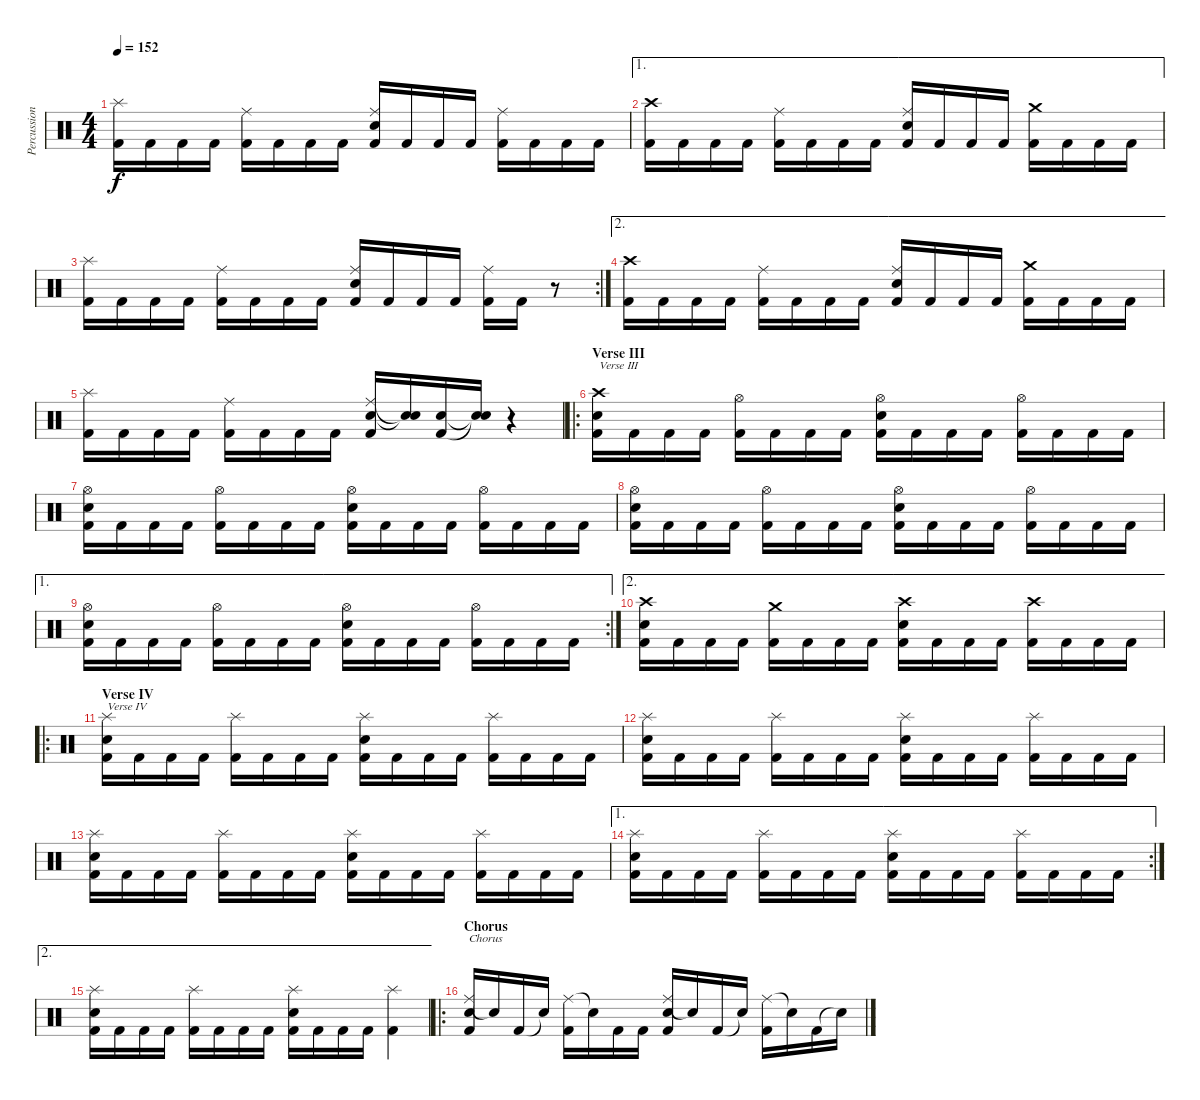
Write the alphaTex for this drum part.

\track ("Percussion" "Percussion") {instrument percussion}
\staff {score}
\articulation defaults
\ts (4 4)
\tempo 152
\clef neutral
\ks c
("Splash (hit)" "Kick (hit) 2").16{dy f} "Kick (hit) 2".16 "Kick (hit) 2".16 "Kick (hit) 2".16 ("Ride (middle)" "Kick (hit) 2").16 "Kick (hit) 2".16 "Kick (hit) 2".16 "Kick (hit) 2".16 ("Ride (middle)" "Electric Snare (hit)" "Kick (hit) 2").16 "Kick (hit) 2".16 "Kick (hit) 2".16 "Kick (hit) 2".16 ("Ride (middle)" "Kick (hit) 2").16 "Kick (hit) 2".16 "Kick (hit) 2".16 "Kick (hit) 2".16 |
\ae 1
("Crash high (hit)" "Kick (hit) 2").16 "Kick (hit) 2".16 "Kick (hit) 2".16 "Kick (hit) 2".16 ("Ride (middle)" "Kick (hit) 2").16 "Kick (hit) 2".16 "Kick (hit) 2".16 "Kick (hit) 2".16 ("Ride (middle)" "Electric Snare (hit)" "Kick (hit) 2").16 "Kick (hit) 2".16 "Kick (hit) 2".16 "Kick (hit) 2".16 ("Crash medium (hit)" "Kick (hit) 2").16 "Kick (hit) 2".16 "Kick (hit) 2".16 "Kick (hit) 2".16 |
\rc 2
("Splash (hit)" "Kick (hit) 2").16 "Kick (hit) 2".16 "Kick (hit) 2".16 "Kick (hit) 2".16 ("Ride (middle)" "Kick (hit) 2").16 "Kick (hit) 2".16 "Kick (hit) 2".16 "Kick (hit) 2".16 ("Ride (middle)" "Electric Snare (hit)" "Kick (hit) 2").16 "Kick (hit) 2".16 "Kick (hit) 2".16 "Kick (hit) 2".16 ("Ride (middle)" "Kick (hit) 2").16 "Kick (hit) 2".16 r.8 |
\ae 2
("Crash high (hit)" "Kick (hit) 2").16 "Kick (hit) 2".16 "Kick (hit) 2".16 "Kick (hit) 2".16 ("Ride (middle)" "Kick (hit) 2").16 "Kick (hit) 2".16 "Kick (hit) 2".16 "Kick (hit) 2".16 ("Ride (middle)" "Electric Snare (hit)" "Kick (hit) 2").16 "Kick (hit) 2".16 "Kick (hit) 2".16 "Kick (hit) 2".16 ("Crash medium (hit)" "Kick (hit) 2").16 "Kick (hit) 2".16 "Kick (hit) 2".16 "Kick (hit) 2".16 |
("Splash (hit)" "Kick (hit) 2").16 "Kick (hit) 2".16 "Kick (hit) 2".16 "Kick (hit) 2".16 ("Ride (middle)" "Kick (hit) 2").16 "Kick (hit) 2".16 "Kick (hit) 2".16 "Kick (hit) 2".16 ("Ride (middle)" "Electric Snare (hit)" "Kick (hit) 2").16 ("Snare (hit)"{t} "Snare (hit)"{t}).16 ("Electric Snare (hit)" "Kick (hit) 2").16 ("Snare (hit)"{t} "Snare (hit)"{t}).16 r.4 |
\ro
\section ("" "Verse III")
("Crash high (hit)" "Electric Snare (hit)" "Kick (hit) 2").16{txt "Verse III"} "Kick (hit) 2".16 "Kick (hit) 2".16 "Kick (hit) 2".16 ("Hi-Hat (open)" "Kick (hit) 2").16 "Kick (hit) 2".16 "Kick (hit) 2".16 "Kick (hit) 2".16 ("Hi-Hat (open)" "Electric Snare (hit)" "Kick (hit) 2").16 "Kick (hit) 2".16 "Kick (hit) 2".16 "Kick (hit) 2".16 ("Hi-Hat (open)" "Kick (hit) 2").16 "Kick (hit) 2".16 "Kick (hit) 2".16 "Kick (hit) 2".16 |
("Hi-Hat (open)" "Electric Snare (hit)" "Kick (hit) 2").16 "Kick (hit) 2".16 "Kick (hit) 2".16 "Kick (hit) 2".16 ("Hi-Hat (open)" "Kick (hit) 2").16 "Kick (hit) 2".16 "Kick (hit) 2".16 "Kick (hit) 2".16 ("Hi-Hat (open)" "Electric Snare (hit)" "Kick (hit) 2").16 "Kick (hit) 2".16 "Kick (hit) 2".16 "Kick (hit) 2".16 ("Hi-Hat (open)" "Kick (hit) 2").16 "Kick (hit) 2".16 "Kick (hit) 2".16 "Kick (hit) 2".16 |
("Hi-Hat (open)" "Electric Snare (hit)" "Kick (hit) 2").16 "Kick (hit) 2".16 "Kick (hit) 2".16 "Kick (hit) 2".16 ("Hi-Hat (open)" "Kick (hit) 2").16 "Kick (hit) 2".16 "Kick (hit) 2".16 "Kick (hit) 2".16 ("Hi-Hat (open)" "Electric Snare (hit)" "Kick (hit) 2").16 "Kick (hit) 2".16 "Kick (hit) 2".16 "Kick (hit) 2".16 ("Hi-Hat (open)" "Kick (hit) 2").16 "Kick (hit) 2".16 "Kick (hit) 2".16 "Kick (hit) 2".16 |
\ae 1
\rc 2
("Hi-Hat (open)" "Electric Snare (hit)" "Kick (hit) 2").16 "Kick (hit) 2".16 "Kick (hit) 2".16 "Kick (hit) 2".16 ("Hi-Hat (open)" "Kick (hit) 2").16 "Kick (hit) 2".16 "Kick (hit) 2".16 "Kick (hit) 2".16 ("Hi-Hat (open)" "Electric Snare (hit)" "Kick (hit) 2").16 "Kick (hit) 2".16 "Kick (hit) 2".16 "Kick (hit) 2".16 ("Hi-Hat (open)" "Kick (hit) 2").16 "Kick (hit) 2".16 "Kick (hit) 2".16 "Kick (hit) 2".16 |
\ae 2
("Crash high (hit)" "Electric Snare (hit)" "Kick (hit) 2").16 "Kick (hit) 2".16 "Kick (hit) 2".16 "Kick (hit) 2".16 ("Crash medium (hit)" "Kick (hit) 2").16 "Kick (hit) 2".16 "Kick (hit) 2".16 "Kick (hit) 2".16 ("Crash high (hit)" "Electric Snare (hit)" "Kick (hit) 2").16 "Kick (hit) 2".16 "Kick (hit) 2".16 "Kick (hit) 2".16 ("Crash high (hit)" "Kick (hit) 2").16 "Kick (hit) 2".16 "Kick (hit) 2".16 "Kick (hit) 2".16 |
\ro
\section ("" "Verse IV")
("Splash (hit)" "Electric Snare (hit)" "Kick (hit) 2").16{txt "Verse IV"} "Kick (hit) 2".16 "Kick (hit) 2".16 "Kick (hit) 2".16 ("Splash (hit)" "Kick (hit) 2").16 "Kick (hit) 2".16 "Kick (hit) 2".16 "Kick (hit) 2".16 ("Splash (hit)" "Electric Snare (hit)" "Kick (hit) 2").16 "Kick (hit) 2".16 "Kick (hit) 2".16 "Kick (hit) 2".16 ("Splash (hit)" "Kick (hit) 2").16 "Kick (hit) 2".16 "Kick (hit) 2".16 "Kick (hit) 2".16 |
("Splash (hit)" "Electric Snare (hit)" "Kick (hit) 2").16 "Kick (hit) 2".16 "Kick (hit) 2".16 "Kick (hit) 2".16 ("Splash (hit)" "Kick (hit) 2").16 "Kick (hit) 2".16 "Kick (hit) 2".16 "Kick (hit) 2".16 ("Splash (hit)" "Electric Snare (hit)" "Kick (hit) 2").16 "Kick (hit) 2".16 "Kick (hit) 2".16 "Kick (hit) 2".16 ("Splash (hit)" "Kick (hit) 2").16 "Kick (hit) 2".16 "Kick (hit) 2".16 "Kick (hit) 2".16 |
("Splash (hit)" "Electric Snare (hit)" "Kick (hit) 2").16 "Kick (hit) 2".16 "Kick (hit) 2".16 "Kick (hit) 2".16 ("Splash (hit)" "Kick (hit) 2").16 "Kick (hit) 2".16 "Kick (hit) 2".16 "Kick (hit) 2".16 ("Splash (hit)" "Electric Snare (hit)" "Kick (hit) 2").16 "Kick (hit) 2".16 "Kick (hit) 2".16 "Kick (hit) 2".16 ("Splash (hit)" "Kick (hit) 2").16 "Kick (hit) 2".16 "Kick (hit) 2".16 "Kick (hit) 2".16 |
\ae 1
\rc 2
("Splash (hit)" "Electric Snare (hit)" "Kick (hit) 2").16 "Kick (hit) 2".16 "Kick (hit) 2".16 "Kick (hit) 2".16 ("Splash (hit)" "Kick (hit) 2").16 "Kick (hit) 2".16 "Kick (hit) 2".16 "Kick (hit) 2".16 ("Splash (hit)" "Electric Snare (hit)" "Kick (hit) 2").16 "Kick (hit) 2".16 "Kick (hit) 2".16 "Kick (hit) 2".16 ("Splash (hit)" "Kick (hit) 2").16 "Kick (hit) 2".16 "Kick (hit) 2".16 "Kick (hit) 2".16 |
\ae 2
("Splash (hit)" "Electric Snare (hit)" "Kick (hit) 2").16 "Kick (hit) 2".16 "Kick (hit) 2".16 "Kick (hit) 2".16 ("Splash (hit)" "Kick (hit) 2").16 "Kick (hit) 2".16 "Kick (hit) 2".16 "Kick (hit) 2".16 ("Splash (hit)" "Electric Snare (hit)" "Kick (hit) 2").16 "Kick (hit) 2".16 "Kick (hit) 2".16 "Kick (hit) 2".16 ("Splash (hit)" "Kick (hit) 2").4 |
\ro
\section ("" "Chorus")
("Ride (middle)" "Electric Snare (hit)" "Kick (hit) 2").16{txt "Chorus"} "Snare (hit)"{t}.16 "Kick (hit) 2".16 "Snare (hit)"{t}.16 ("Ride (middle)" "Kick (hit) 2").16 "Snare (hit)"{t}.16 "Kick (hit) 2".16 "Kick (hit) 2".16 ("Ride (middle)" "Electric Snare (hit)" "Kick (hit) 2").16 "Snare (hit)"{t}.16 "Kick (hit) 2".16 "Snare (hit)"{t}.16 ("Ride (middle)" "Kick (hit) 2").16 "Snare (hit)"{t}.16 "Kick (hit) 2".16 "Snare (hit)"{t}.16
